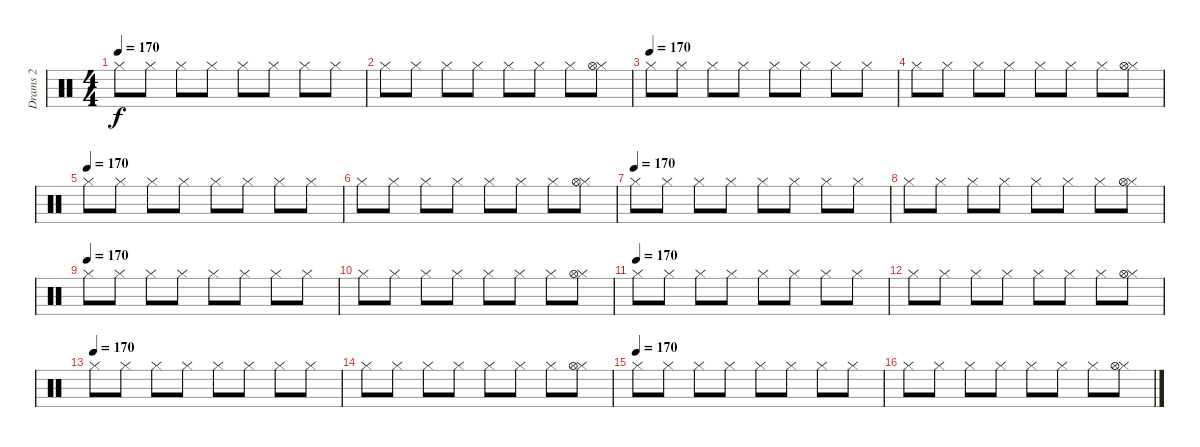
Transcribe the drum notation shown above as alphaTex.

\track ("Drams 2" "Drams 2") {instrument percussion}
\staff {score}
\articulation defaults
\ts (4 4)
\tempo 170
\clef neutral
\ks c "Hi-Hat (closed)".8{dy f} "Hi-Hat (closed)".8 "Hi-Hat (closed)".8 "Hi-Hat (closed)".8 "Hi-Hat (closed)".8 "Hi-Hat (closed)".8 "Hi-Hat (closed)".8 "Hi-Hat (closed)".8
|
"Hi-Hat (closed)".8 "Hi-Hat (closed)".8 "Hi-Hat (closed)".8 "Hi-Hat (closed)".8 "Hi-Hat (closed)".8 "Hi-Hat (closed)".8 "Hi-Hat (closed)".8 ("Hi-Hat (closed)" "Hi-Hat (open)").8 |
\tempo (170)
"Hi-Hat (closed)".8 "Hi-Hat (closed)".8 "Hi-Hat (closed)".8 "Hi-Hat (closed)".8 "Hi-Hat (closed)".8 "Hi-Hat (closed)".8 "Hi-Hat (closed)".8 "Hi-Hat (closed)".8 |
"Hi-Hat (closed)".8 "Hi-Hat (closed)".8 "Hi-Hat (closed)".8 "Hi-Hat (closed)".8 "Hi-Hat (closed)".8 "Hi-Hat (closed)".8 "Hi-Hat (closed)".8 ("Hi-Hat (closed)" "Hi-Hat (open)").8 |
\tempo (170)
"Hi-Hat (closed)".8 "Hi-Hat (closed)".8 "Hi-Hat (closed)".8 "Hi-Hat (closed)".8 "Hi-Hat (closed)".8 "Hi-Hat (closed)".8 "Hi-Hat (closed)".8 "Hi-Hat (closed)".8 |
"Hi-Hat (closed)".8 "Hi-Hat (closed)".8 "Hi-Hat (closed)".8 "Hi-Hat (closed)".8 "Hi-Hat (closed)".8 "Hi-Hat (closed)".8 "Hi-Hat (closed)".8 ("Hi-Hat (closed)" "Hi-Hat (open)").8 |
\tempo (170)
"Hi-Hat (closed)".8 "Hi-Hat (closed)".8 "Hi-Hat (closed)".8 "Hi-Hat (closed)".8 "Hi-Hat (closed)".8 "Hi-Hat (closed)".8 "Hi-Hat (closed)".8 "Hi-Hat (closed)".8 |
"Hi-Hat (closed)".8 "Hi-Hat (closed)".8 "Hi-Hat (closed)".8 "Hi-Hat (closed)".8 "Hi-Hat (closed)".8 "Hi-Hat (closed)".8 "Hi-Hat (closed)".8 ("Hi-Hat (closed)" "Hi-Hat (open)").8 |
\tempo (170)
"Hi-Hat (closed)".8 "Hi-Hat (closed)".8 "Hi-Hat (closed)".8 "Hi-Hat (closed)".8 "Hi-Hat (closed)".8 "Hi-Hat (closed)".8 "Hi-Hat (closed)".8 "Hi-Hat (closed)".8 |
"Hi-Hat (closed)".8 "Hi-Hat (closed)".8 "Hi-Hat (closed)".8 "Hi-Hat (closed)".8 "Hi-Hat (closed)".8 "Hi-Hat (closed)".8 "Hi-Hat (closed)".8 ("Hi-Hat (closed)" "Hi-Hat (open)").8 |
\tempo (170)
"Hi-Hat (closed)".8 "Hi-Hat (closed)".8 "Hi-Hat (closed)".8 "Hi-Hat (closed)".8 "Hi-Hat (closed)".8 "Hi-Hat (closed)".8 "Hi-Hat (closed)".8 "Hi-Hat (closed)".8 |
"Hi-Hat (closed)".8 "Hi-Hat (closed)".8 "Hi-Hat (closed)".8 "Hi-Hat (closed)".8 "Hi-Hat (closed)".8 "Hi-Hat (closed)".8 "Hi-Hat (closed)".8 ("Hi-Hat (closed)" "Hi-Hat (open)").8 |
\tempo (170)
"Hi-Hat (closed)".8 "Hi-Hat (closed)".8 "Hi-Hat (closed)".8 "Hi-Hat (closed)".8 "Hi-Hat (closed)".8 "Hi-Hat (closed)".8 "Hi-Hat (closed)".8 "Hi-Hat (closed)".8 |
"Hi-Hat (closed)".8 "Hi-Hat (closed)".8 "Hi-Hat (closed)".8 "Hi-Hat (closed)".8 "Hi-Hat (closed)".8 "Hi-Hat (closed)".8 "Hi-Hat (closed)".8 ("Hi-Hat (closed)" "Hi-Hat (open)").8 |
\tempo (170)
"Hi-Hat (closed)".8 "Hi-Hat (closed)".8 "Hi-Hat (closed)".8 "Hi-Hat (closed)".8 "Hi-Hat (closed)".8 "Hi-Hat (closed)".8 "Hi-Hat (closed)".8 "Hi-Hat (closed)".8 |
"Hi-Hat (closed)".8 "Hi-Hat (closed)".8 "Hi-Hat (closed)".8 "Hi-Hat (closed)".8 "Hi-Hat (closed)".8 "Hi-Hat (closed)".8 "Hi-Hat (closed)".8 ("Hi-Hat (closed)" "Hi-Hat (open)").8
